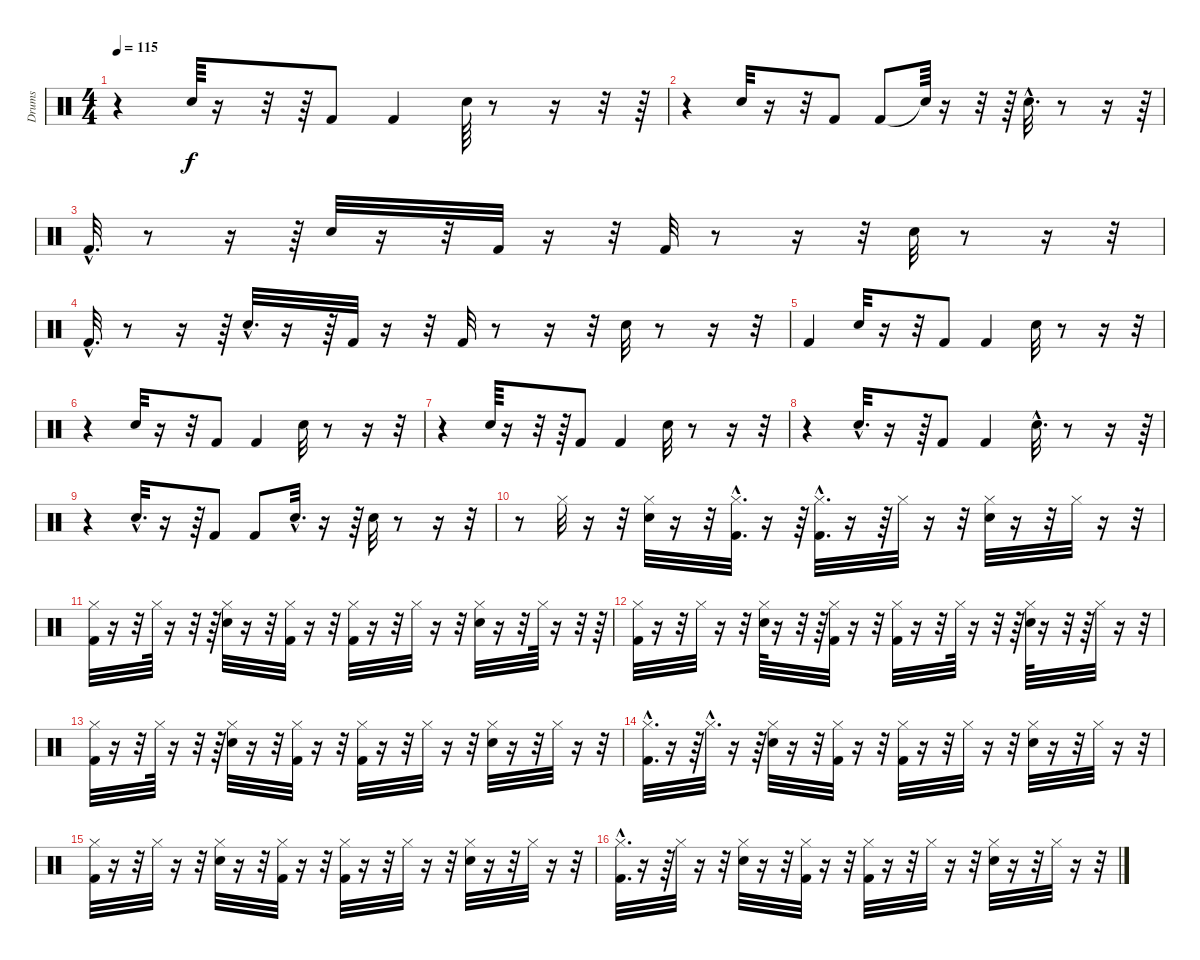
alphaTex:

\track ("Drums               " "Drums     ") {instrument percussion}
\staff {score}
\articulation defaults
\ts (4 4)
\tempo 115
\clef neutral
\ks c
r.4{dy f} "Snare (hit) 2".64 r.16 r.32 r.64 "Kick (hit) 2".8 "Kick (hit) 2".4 "Snare (hit) 2".64 r.8 r.16 r.32 r.64 |
r.4 "Snare (hit) 2".32 r.16 r.32 "Kick (hit) 2".8 "Kick (hit) 2".8 "Snare (hit)"{t}.64 r.16 r.32 r.64 "Snare (hit) 2"{hac}.32{d} r.8 r.16 r.64 |
"Kick (hit) 2"{hac}.32{d} r.8 r.16 r.64 "Snare (hit) 2".32 r.16 r.32 "Kick (hit) 2".32 r.16 r.32 "Kick (hit) 2".32 r.8 r.16 r.32 "Snare (hit) 2".32 r.8 r.16 r.32 |
"Kick (hit) 2"{hac}.32{d} r.8 r.16 r.64 "Snare (hit) 2"{hac}.32{d} r.16 r.64 "Kick (hit) 2".32 r.16 r.32 "Kick (hit) 2".32 r.8 r.16 r.32 "Snare (hit) 2".32 r.8 r.16 r.32 |
"Kick (hit) 2".4 "Snare (hit) 2".32 r.16 r.32 "Kick (hit) 2".8 "Kick (hit) 2".4 "Snare (hit) 2".32 r.8 r.16 r.32 |
r.4 "Snare (hit) 2".32 r.16 r.32 "Kick (hit) 2".8 "Kick (hit) 2".4 "Snare (hit) 2".32 r.8 r.16 r.32 |
r.4 "Snare (hit) 2".64 r.16 r.32 r.64 "Kick (hit) 2".8 "Kick (hit) 2".4 "Snare (hit) 2".32 r.8 r.16 r.32 |
r.4 "Snare (hit) 2"{hac}.32{d} r.16 r.64 "Kick (hit) 2".8 "Kick (hit) 2".4 "Snare (hit) 2"{hac}.32{d} r.8 r.16 r.64 |
r.4 "Snare (hit) 2"{hac}.32{d} r.16 r.64 "Kick (hit) 2".8 "Kick (hit) 2".8 "Snare (hit) 2"{hac}.32{d} r.16 r.64 "Snare (hit) 2".32 r.8 r.16 r.32 |
r.8 "Hi-Hat (closed)".32 r.16 r.32 ("Hi-Hat (closed)" "Snare (hit) 2").32 r.16 r.32 ("Hi-Hat (closed)"{hac} "Kick (hit) 2"{hac}).32{d} r.16 r.64 ("Hi-Hat (closed)"{hac} "Kick (hit) 2"{hac}).32{d} r.16 r.64 "Hi-Hat (closed)".32 r.16 r.32 ("Hi-Hat (closed)" "Snare (hit) 2").32 r.16 r.32 "Hi-Hat (closed)".32 r.16 r.32 |
("Hi-Hat (closed)" "Kick (hit) 2").32 r.16 r.32 "Hi-Hat (closed)".64 r.16 r.32 r.64 ("Hi-Hat (closed)" "Snare (hit) 2").32 r.16 r.32 ("Hi-Hat (closed)" "Kick (hit) 2").32 r.16 r.32 ("Hi-Hat (closed)" "Kick (hit) 2").32 r.16 r.32 "Hi-Hat (closed)".32 r.16 r.32 ("Hi-Hat (closed)" "Snare (hit) 2").32 r.16 r.32 "Hi-Hat (closed)".64 r.16 r.32 r.64 |
("Hi-Hat (closed)" "Kick (hit) 2").32 r.16 r.32 "Hi-Hat (closed)".32 r.16 r.32 ("Hi-Hat (closed)" "Snare (hit) 2").64 r.16 r.32 r.64 ("Hi-Hat (closed)" "Kick (hit) 2").32 r.16 r.32 ("Hi-Hat (closed)" "Kick (hit) 2").32 r.16 r.32 "Hi-Hat (closed)".64 r.16 r.32 r.64 ("Hi-Hat (closed)" "Snare (hit) 2").64 r.16 r.32 r.64 "Hi-Hat (closed)".32 r.16 r.32 |
("Hi-Hat (closed)" "Kick (hit) 2").32 r.16 r.32 "Hi-Hat (closed)".64 r.16 r.32 r.64 ("Hi-Hat (closed)" "Snare (hit) 2").32 r.16 r.32 ("Hi-Hat (closed)" "Kick (hit) 2").32 r.16 r.32 ("Hi-Hat (closed)" "Kick (hit) 2").32 r.16 r.32 "Hi-Hat (closed)".32 r.16 r.32 ("Hi-Hat (closed)" "Snare (hit) 2").32 r.16 r.32 "Hi-Hat (closed)".32 r.16 r.32 |
("Hi-Hat (closed)"{hac} "Kick (hit) 2"{hac}).32{d} r.16 r.64 "Hi-Hat (closed)"{hac}.32{d} r.16 r.64 ("Hi-Hat (closed)" "Snare (hit) 2").32 r.16 r.32 ("Hi-Hat (closed)" "Kick (hit) 2").32 r.16 r.32 ("Hi-Hat (closed)" "Kick (hit) 2").32 r.16 r.32 "Hi-Hat (closed)".32 r.16 r.32 ("Hi-Hat (closed)" "Snare (hit) 2").32 r.16 r.32 "Hi-Hat (closed)".32 r.16 r.32 |
("Hi-Hat (closed)" "Kick (hit) 2").32 r.16 r.32 "Hi-Hat (closed)".32 r.16 r.32 ("Hi-Hat (closed)" "Snare (hit) 2").32 r.16 r.32 ("Hi-Hat (closed)" "Kick (hit) 2").32 r.16 r.32 ("Hi-Hat (closed)" "Kick (hit) 2").32 r.16 r.32 "Hi-Hat (closed)".32 r.16 r.32 ("Hi-Hat (closed)" "Snare (hit) 2").32 r.16 r.32 "Hi-Hat (closed)".32 r.16 r.32 |
("Hi-Hat (closed)"{hac} "Kick (hit) 2"{hac}).32{d} r.16 r.64 "Hi-Hat (closed)".32 r.16 r.32 ("Hi-Hat (closed)" "Snare (hit) 2").32 r.16 r.32 ("Hi-Hat (closed)" "Kick (hit) 2").32 r.16 r.32 ("Hi-Hat (closed)" "Kick (hit) 2").32 r.16 r.32 "Hi-Hat (closed)".32 r.16 r.32 ("Hi-Hat (closed)" "Snare (hit) 2").32 r.16 r.32 "Hi-Hat (closed)".32 r.16 r.32
